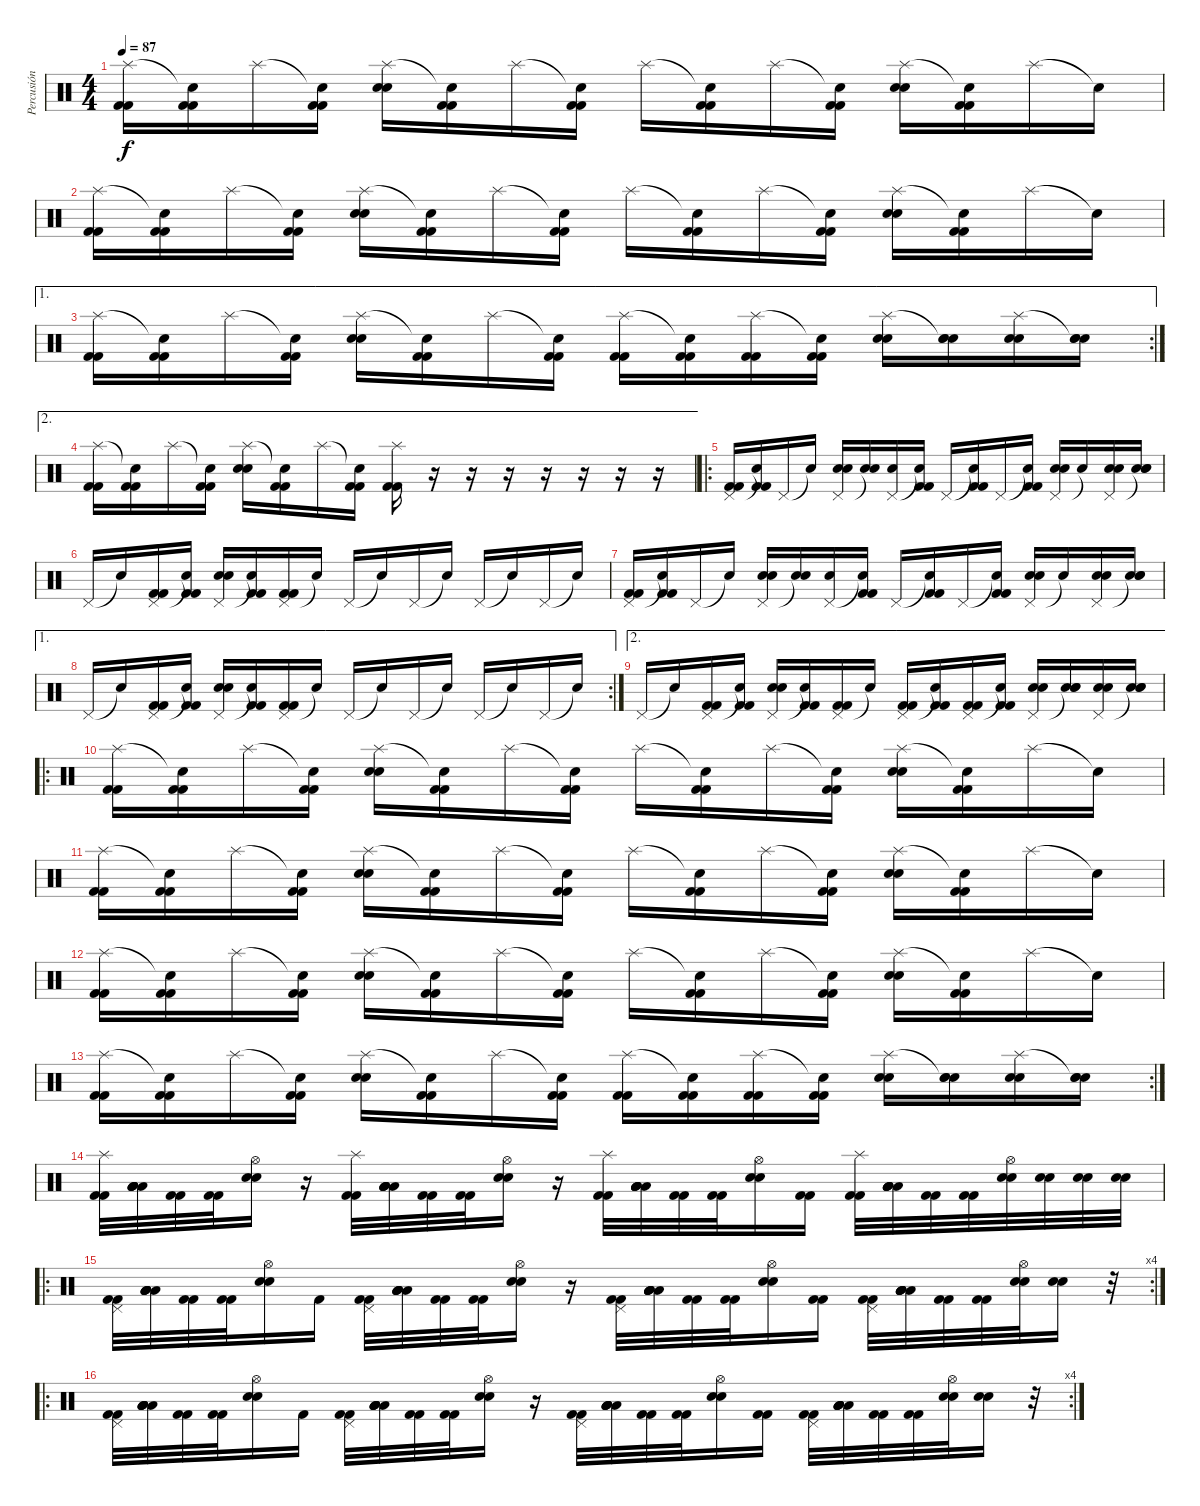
\track ("Percusión" "Percusión") {instrument percussion}
\staff {score}
\articulation defaults
\ts (4 4)
\tempo 87
\clef neutral
\ks c
("Splash (hit)" "Kick (hit) 2" "Kick (hit) 2").16{dy f} ("Snare (hit)"{t} "Kick (hit) 2" "Kick (hit) 2").16 "Splash (hit)".16 ("Snare (hit)"{t} "Kick (hit) 2" "Kick (hit) 2").16 ("Splash (hit)" "Electric Snare (hit)" "Electric Snare (hit)").16 ("Snare (hit)"{t} "Kick (hit) 2" "Kick (hit) 2").16 "Splash (hit)".16 ("Snare (hit)"{t} "Kick (hit) 2" "Kick (hit) 2").16 "Splash (hit)".16 ("Snare (hit)"{t} "Kick (hit) 2" "Kick (hit) 2").16 "Splash (hit)".16 ("Snare (hit)"{t} "Kick (hit) 2" "Kick (hit) 2").16 ("Splash (hit)" "Electric Snare (hit)" "Electric Snare (hit)").16 ("Snare (hit)"{t} "Kick (hit) 2" "Kick (hit) 2").16 "Splash (hit)".16 "Snare (hit)"{t}.16 |
("Splash (hit)" "Kick (hit) 2" "Kick (hit) 2").16 ("Snare (hit)"{t} "Kick (hit) 2" "Kick (hit) 2").16 "Splash (hit)".16 ("Snare (hit)"{t} "Kick (hit) 2" "Kick (hit) 2").16 ("Splash (hit)" "Electric Snare (hit)" "Electric Snare (hit)").16 ("Snare (hit)"{t} "Kick (hit) 2" "Kick (hit) 2").16 "Splash (hit)".16 ("Snare (hit)"{t} "Kick (hit) 2" "Kick (hit) 2").16 "Splash (hit)".16 ("Snare (hit)"{t} "Kick (hit) 2" "Kick (hit) 2").16 "Splash (hit)".16 ("Snare (hit)"{t} "Kick (hit) 2" "Kick (hit) 2").16 ("Splash (hit)" "Electric Snare (hit)" "Electric Snare (hit)").16 ("Snare (hit)"{t} "Kick (hit) 2" "Kick (hit) 2").16 "Splash (hit)".16 "Snare (hit)"{t}.16 |
\ae 1
\rc 2
("Splash (hit)" "Kick (hit) 2" "Kick (hit) 2").16 ("Snare (hit)"{t} "Kick (hit) 2" "Kick (hit) 2").16 "Splash (hit)".16 ("Snare (hit)"{t} "Kick (hit) 2" "Kick (hit) 2").16 ("Splash (hit)" "Electric Snare (hit)" "Electric Snare (hit)").16 ("Snare (hit)"{t} "Kick (hit) 2" "Kick (hit) 2").16 "Splash (hit)".16 ("Snare (hit)"{t} "Kick (hit) 2" "Kick (hit) 2").16 ("Splash (hit)" "Kick (hit) 2" "Kick (hit) 2").16 ("Snare (hit)"{t} "Kick (hit) 2" "Kick (hit) 2").16 ("Splash (hit)" "Kick (hit) 2" "Kick (hit) 2").16 ("Snare (hit)"{t} "Kick (hit) 2" "Kick (hit) 2").16 ("Splash (hit)" "Electric Snare (hit)" "Electric Snare (hit)").16 ("Snare (hit)"{t} "Electric Snare (hit)" "Electric Snare (hit)").16 ("Splash (hit)" "Electric Snare (hit)" "Electric Snare (hit)").16 ("Snare (hit)"{t} "Electric Snare (hit)" "Electric Snare (hit)").16 |
\ae 2
("Splash (hit)" "Kick (hit) 2" "Kick (hit) 2").16 ("Snare (hit)"{t} "Kick (hit) 2" "Kick (hit) 2").16 "Splash (hit)".16 ("Snare (hit)"{t} "Kick (hit) 2" "Kick (hit) 2").16 ("Splash (hit)" "Electric Snare (hit)" "Electric Snare (hit)").16 ("Snare (hit)"{t} "Kick (hit) 2" "Kick (hit) 2").16 "Splash (hit)".16 ("Snare (hit)"{t} "Kick (hit) 2" "Kick (hit) 2").16 ("Splash (hit)" "Kick (hit) 2" "Kick (hit) 2").16 r.16 r.16 r.16 r.16 r.16 r.16 r.16 |
\ro
("Pedal Hi-Hat (hit)" "Kick (hit) 2" "Kick (hit) 2").16 ("Snare (hit)"{t} "Kick (hit) 2" "Kick (hit) 2").16 "Pedal Hi-Hat (hit)".16 "Snare (hit)"{t}.16 ("Pedal Hi-Hat (hit)" "Electric Snare (hit)" "Electric Snare (hit)").16 ("Snare (hit)"{t} "Electric Snare (hit)").16 ("Pedal Hi-Hat (hit)" "Electric Snare (hit)").16 ("Snare (hit)"{t} "Kick (hit) 2" "Kick (hit) 2").16 "Pedal Hi-Hat (hit)".16 ("Snare (hit)"{t} "Kick (hit) 2" "Kick (hit) 2").16 "Pedal Hi-Hat (hit)".16 ("Snare (hit)"{t} "Kick (hit) 2" "Kick (hit) 2").16 ("Pedal Hi-Hat (hit)" "Electric Snare (hit)" "Electric Snare (hit)").16 "Snare (hit)"{t}.16 ("Pedal Hi-Hat (hit)" "Electric Snare (hit)" "Electric Snare (hit)").16 ("Snare (hit)"{t} "Electric Snare (hit)" "Electric Snare (hit)").16 |
"Pedal Hi-Hat (hit)".16 "Snare (hit)"{t}.16 ("Pedal Hi-Hat (hit)" "Kick (hit) 2" "Kick (hit) 2").16 ("Snare (hit)"{t} "Kick (hit) 2" "Kick (hit) 2").16 ("Pedal Hi-Hat (hit)" "Electric Snare (hit)" "Electric Snare (hit)").16 ("Snare (hit)"{t} "Kick (hit) 2" "Kick (hit) 2").16 ("Pedal Hi-Hat (hit)" "Kick (hit) 2" "Kick (hit) 2").16 "Snare (hit)"{t}.16 "Pedal Hi-Hat (hit)".16 "Snare (hit)"{t}.16 "Pedal Hi-Hat (hit)".16 "Snare (hit)"{t}.16 "Pedal Hi-Hat (hit)".16 "Snare (hit)"{t}.16 "Pedal Hi-Hat (hit)".16 "Snare (hit)"{t}.16 |
("Pedal Hi-Hat (hit)" "Kick (hit) 2" "Kick (hit) 2").16 ("Snare (hit)"{t} "Kick (hit) 2" "Kick (hit) 2").16 "Pedal Hi-Hat (hit)".16 "Snare (hit)"{t}.16 ("Pedal Hi-Hat (hit)" "Electric Snare (hit)" "Electric Snare (hit)").16 ("Snare (hit)"{t} "Electric Snare (hit)").16 ("Pedal Hi-Hat (hit)" "Electric Snare (hit)").16 ("Snare (hit)"{t} "Kick (hit) 2" "Kick (hit) 2").16 "Pedal Hi-Hat (hit)".16 ("Snare (hit)"{t} "Kick (hit) 2" "Kick (hit) 2").16 "Pedal Hi-Hat (hit)".16 ("Snare (hit)"{t} "Kick (hit) 2" "Kick (hit) 2").16 ("Pedal Hi-Hat (hit)" "Electric Snare (hit)" "Electric Snare (hit)").16 "Snare (hit)"{t}.16 ("Pedal Hi-Hat (hit)" "Electric Snare (hit)" "Electric Snare (hit)").16 ("Snare (hit)"{t} "Electric Snare (hit)" "Electric Snare (hit)").16 |
\ae 1
\rc 2 "Pedal Hi-Hat (hit)".16 "Snare (hit)"{t}.16
("Pedal Hi-Hat (hit)" "Kick (hit) 2" "Kick (hit) 2").16 ("Snare (hit)"{t} "Kick (hit) 2" "Kick (hit) 2").16 ("Pedal Hi-Hat (hit)" "Electric Snare (hit)" "Electric Snare (hit)").16 ("Snare (hit)"{t} "Kick (hit) 2" "Kick (hit) 2").16 ("Pedal Hi-Hat (hit)" "Kick (hit) 2" "Kick (hit) 2").16 "Snare (hit)"{t}.16 "Pedal Hi-Hat (hit)".16 "Snare (hit)"{t}.16 "Pedal Hi-Hat (hit)".16 "Snare (hit)"{t}.16 "Pedal Hi-Hat (hit)".16 "Snare (hit)"{t}.16 "Pedal Hi-Hat (hit)".16 "Snare (hit)"{t}.16 |
\ae 2 "Pedal Hi-Hat (hit)".16 "Snare (hit)"{t}.16
("Pedal Hi-Hat (hit)" "Kick (hit) 2" "Kick (hit) 2").16 ("Snare (hit)"{t} "Kick (hit) 2" "Kick (hit) 2").16 ("Pedal Hi-Hat (hit)" "Electric Snare (hit)" "Electric Snare (hit)").16 ("Snare (hit)"{t} "Kick (hit) 2" "Kick (hit) 2").16 ("Pedal Hi-Hat (hit)" "Kick (hit) 2" "Kick (hit) 2").16 "Snare (hit)"{t}.16 ("Pedal Hi-Hat (hit)" "Kick (hit) 2" "Kick (hit) 2").16 ("Snare (hit)"{t} "Kick (hit) 2" "Kick (hit) 2").16 ("Pedal Hi-Hat (hit)" "Kick (hit) 2" "Kick (hit) 2").16 ("Snare (hit)"{t} "Kick (hit) 2" "Kick (hit) 2").16 ("Pedal Hi-Hat (hit)" "Electric Snare (hit)" "Electric Snare (hit)").16 ("Snare (hit)"{t} "Electric Snare (hit)" "Electric Snare (hit)").16 ("Pedal Hi-Hat (hit)" "Electric Snare (hit)" "Electric Snare (hit)").16 ("Snare (hit)"{t} "Electric Snare (hit)" "Electric Snare (hit)").16 |
\ro
("Splash (hit)" "Kick (hit) 2" "Kick (hit) 2").16 ("Snare (hit)"{t} "Kick (hit) 2" "Kick (hit) 2").16 "Splash (hit)".16 ("Snare (hit)"{t} "Kick (hit) 2" "Kick (hit) 2").16 ("Splash (hit)" "Electric Snare (hit)" "Electric Snare (hit)").16 ("Snare (hit)"{t} "Kick (hit) 2" "Kick (hit) 2").16 "Splash (hit)".16 ("Snare (hit)"{t} "Kick (hit) 2" "Kick (hit) 2").16 "Splash (hit)".16 ("Snare (hit)"{t} "Kick (hit) 2" "Kick (hit) 2").16 "Splash (hit)".16 ("Snare (hit)"{t} "Kick (hit) 2" "Kick (hit) 2").16 ("Splash (hit)" "Electric Snare (hit)" "Electric Snare (hit)").16 ("Snare (hit)"{t} "Kick (hit) 2" "Kick (hit) 2").16 "Splash (hit)".16 "Snare (hit)"{t}.16 |
("Splash (hit)" "Kick (hit) 2" "Kick (hit) 2").16 ("Snare (hit)"{t} "Kick (hit) 2" "Kick (hit) 2").16 "Splash (hit)".16 ("Snare (hit)"{t} "Kick (hit) 2" "Kick (hit) 2").16 ("Splash (hit)" "Electric Snare (hit)" "Electric Snare (hit)").16 ("Snare (hit)"{t} "Kick (hit) 2" "Kick (hit) 2").16 "Splash (hit)".16 ("Snare (hit)"{t} "Kick (hit) 2" "Kick (hit) 2").16 "Splash (hit)".16 ("Snare (hit)"{t} "Kick (hit) 2" "Kick (hit) 2").16 "Splash (hit)".16 ("Snare (hit)"{t} "Kick (hit) 2" "Kick (hit) 2").16 ("Splash (hit)" "Electric Snare (hit)" "Electric Snare (hit)").16 ("Snare (hit)"{t} "Kick (hit) 2" "Kick (hit) 2").16 "Splash (hit)".16 "Snare (hit)"{t}.16 |
("Splash (hit)" "Kick (hit) 2" "Kick (hit) 2").16 ("Snare (hit)"{t} "Kick (hit) 2" "Kick (hit) 2").16 "Splash (hit)".16 ("Snare (hit)"{t} "Kick (hit) 2" "Kick (hit) 2").16 ("Splash (hit)" "Electric Snare (hit)" "Electric Snare (hit)").16 ("Snare (hit)"{t} "Kick (hit) 2" "Kick (hit) 2").16 "Splash (hit)".16 ("Snare (hit)"{t} "Kick (hit) 2" "Kick (hit) 2").16 "Splash (hit)".16 ("Snare (hit)"{t} "Kick (hit) 2" "Kick (hit) 2").16 "Splash (hit)".16 ("Snare (hit)"{t} "Kick (hit) 2" "Kick (hit) 2").16 ("Splash (hit)" "Electric Snare (hit)" "Electric Snare (hit)").16 ("Snare (hit)"{t} "Kick (hit) 2" "Kick (hit) 2").16 "Splash (hit)".16 "Snare (hit)"{t}.16 |
\rc 2
("Splash (hit)" "Kick (hit) 2" "Kick (hit) 2").16 ("Snare (hit)"{t} "Kick (hit) 2" "Kick (hit) 2").16 "Splash (hit)".16 ("Snare (hit)"{t} "Kick (hit) 2" "Kick (hit) 2").16 ("Splash (hit)" "Electric Snare (hit)" "Electric Snare (hit)").16 ("Snare (hit)"{t} "Kick (hit) 2" "Kick (hit) 2").16 "Splash (hit)".16 ("Snare (hit)"{t} "Kick (hit) 2" "Kick (hit) 2").16 ("Splash (hit)" "Kick (hit) 2" "Kick (hit) 2").16 ("Snare (hit)"{t} "Kick (hit) 2" "Kick (hit) 2").16 ("Splash (hit)" "Kick (hit) 2" "Kick (hit) 2").16 ("Snare (hit)"{t} "Kick (hit) 2" "Kick (hit) 2").16 ("Splash (hit)" "Electric Snare (hit)" "Electric Snare (hit)").16 ("Snare (hit)"{t} "Electric Snare (hit)" "Electric Snare (hit)").16 ("Splash (hit)" "Electric Snare (hit)" "Electric Snare (hit)").16 ("Snare (hit)"{t} "Electric Snare (hit)" "Electric Snare (hit)").16 |
("Splash (hit)" "Kick (hit) 2" "Kick (hit) 2").32 ("Low Tom (hit)" "Low Tom (hit)" "Low Tom (hit)" "Low Tom (hit)" "Low Tom (hit)").32 ("Kick (hit) 2" "Kick (hit) 2").32 ("Kick (hit) 2" "Kick (hit) 2").32 ("Hi-Hat (open)" "Electric Snare (hit)" "Electric Snare (hit)").16 r.16 ("Splash (hit)" "Kick (hit) 2" "Kick (hit) 2").32 ("Low Tom (hit)" "Low Tom (hit)" "Low Tom (hit)" "Low Tom (hit)" "Low Tom (hit)").32 ("Kick (hit) 2" "Kick (hit) 2").32 ("Kick (hit) 2" "Kick (hit) 2").32 ("Hi-Hat (open)" "Electric Snare (hit)" "Electric Snare (hit)").16 r.16 ("Splash (hit)" "Kick (hit) 2" "Kick (hit) 2").32 ("Low Tom (hit)" "Low Tom (hit)" "Low Tom (hit)" "Low Tom (hit)" "Low Tom (hit)").32 ("Kick (hit) 2" "Kick (hit) 2").32 ("Kick (hit) 2" "Kick (hit) 2").32 ("Hi-Hat (open)" "Electric Snare (hit)" "Electric Snare (hit)").16 ("Kick (hit) 2" "Kick (hit) 2").16 ("Splash (hit)" "Kick (hit) 2" "Kick (hit) 2").32 ("Low Tom (hit)" "Low Tom (hit)" "Low Tom (hit)" "Low Tom (hit)" "Low Tom (hit)").32 ("Kick (hit) 2" "Kick (hit) 2").32 ("Kick (hit) 2" "Kick (hit) 2").32 ("Hi-Hat (open)" "Electric Snare (hit)" "Electric Snare (hit)").32 ("Electric Snare (hit)" "Electric Snare (hit)").32 ("Electric Snare (hit)" "Electric Snare (hit)").32 ("Electric Snare (hit)" "Electric Snare (hit)").32 |
\ro
\rc 4
("Pedal Hi-Hat (hit)" "Kick (hit) 2" "Kick (hit) 2").32 ("Low Tom (hit)" "Low Tom (hit)" "Low Tom (hit)" "Low Tom (hit)" "Low Tom (hit)").32 ("Kick (hit) 2" "Kick (hit) 2").32 ("Kick (hit) 2" "Kick (hit) 2").32 ("Hi-Hat (open)" "Electric Snare (hit)" "Electric Snare (hit)").16 "Kick (hit) 2".16 ("Pedal Hi-Hat (hit)" "Kick (hit) 2" "Kick (hit) 2").32 ("Low Tom (hit)" "Low Tom (hit)" "Low Tom (hit)" "Low Tom (hit)" "Low Tom (hit)").32 ("Kick (hit) 2" "Kick (hit) 2").32 ("Kick (hit) 2" "Kick (hit) 2").32 ("Hi-Hat (open)" "Electric Snare (hit)" "Electric Snare (hit)").16 r.16 ("Pedal Hi-Hat (hit)" "Kick (hit) 2" "Kick (hit) 2").32 ("Low Tom (hit)" "Low Tom (hit)" "Low Tom (hit)" "Low Tom (hit)" "Low Tom (hit)").32 ("Kick (hit) 2" "Kick (hit) 2").32 ("Kick (hit) 2" "Kick (hit) 2").32 ("Hi-Hat (open)" "Electric Snare (hit)" "Electric Snare (hit)").16 ("Kick (hit) 2" "Kick (hit) 2").16 ("Pedal Hi-Hat (hit)" "Kick (hit) 2" "Kick (hit) 2").32 ("Low Tom (hit)" "Low Tom (hit)" "Low Tom (hit)" "Low Tom (hit)" "Low Tom (hit)").32 ("Kick (hit) 2" "Kick (hit) 2").32 ("Kick (hit) 2" "Kick (hit) 2").32 ("Hi-Hat (open)" "Electric Snare (hit)" "Electric Snare (hit)").32 ("Electric Snare (hit)" "Electric Snare (hit)").16 r.32 |
\ro
\rc 4
("Pedal Hi-Hat (hit)" "Kick (hit) 2" "Kick (hit) 2").32 ("Low Tom (hit)" "Low Tom (hit)" "Low Tom (hit)" "Low Tom (hit)" "Low Tom (hit)").32 ("Kick (hit) 2" "Kick (hit) 2").32 ("Kick (hit) 2" "Kick (hit) 2").32 ("Hi-Hat (open)" "Electric Snare (hit)" "Electric Snare (hit)").16 "Kick (hit) 2".16 ("Pedal Hi-Hat (hit)" "Kick (hit) 2" "Kick (hit) 2").32 ("Low Tom (hit)" "Low Tom (hit)" "Low Tom (hit)" "Low Tom (hit)" "Low Tom (hit)").32 ("Kick (hit) 2" "Kick (hit) 2").32 ("Kick (hit) 2" "Kick (hit) 2").32 ("Hi-Hat (open)" "Electric Snare (hit)" "Electric Snare (hit)").16 r.16 ("Pedal Hi-Hat (hit)" "Kick (hit) 2" "Kick (hit) 2").32 ("Low Tom (hit)" "Low Tom (hit)" "Low Tom (hit)" "Low Tom (hit)" "Low Tom (hit)").32 ("Kick (hit) 2" "Kick (hit) 2").32 ("Kick (hit) 2" "Kick (hit) 2").32 ("Hi-Hat (open)" "Electric Snare (hit)" "Electric Snare (hit)").16 ("Kick (hit) 2" "Kick (hit) 2").16 ("Pedal Hi-Hat (hit)" "Kick (hit) 2" "Kick (hit) 2").32 ("Low Tom (hit)" "Low Tom (hit)" "Low Tom (hit)" "Low Tom (hit)" "Low Tom (hit)").32 ("Kick (hit) 2" "Kick (hit) 2").32 ("Kick (hit) 2" "Kick (hit) 2").32 ("Hi-Hat (open)" "Electric Snare (hit)" "Electric Snare (hit)").32 ("Electric Snare (hit)" "Electric Snare (hit)").16 r.32
